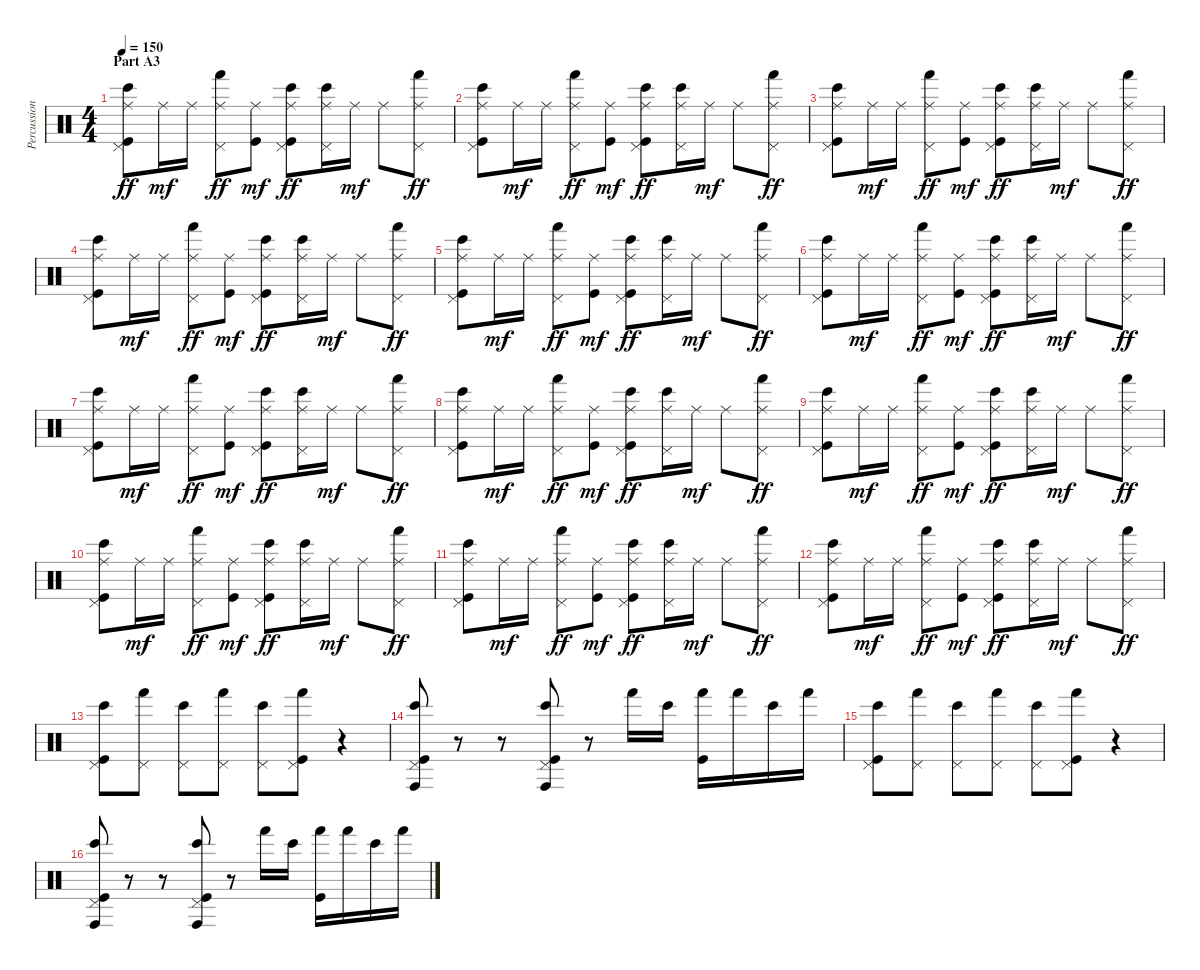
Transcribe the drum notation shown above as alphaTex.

\track ("Percussion" "Percussion") {instrument percussion}
\staff {score}
\articulation defaults
\ts (4 4)
\section ("" "Part A3")
\tempo 150
\clef neutral
\ks c
("Ride (middle)" "Pedal Hi-Hat (hit)" "Bongo High (hit)" "Kick (hit)").8{dy ff} "Ride (middle)".16{dy mf} "Ride (middle)".16 ("Ride (middle)" "Pedal Hi-Hat (hit)" "Hand (hit)").8{dy ff} ("Ride (middle)" "Kick (hit)").8{dy mf} ("Ride (middle)" "Pedal Hi-Hat (hit)" "Bongo High (hit)" "Kick (hit)").8{dy ff} ("Ride (middle)" "Pedal Hi-Hat (hit)" "Bongo High (hit)").16 "Ride (middle)".16{dy mf} "Ride (middle)".8 ("Ride (middle)" "Pedal Hi-Hat (hit)" "Hand (hit)").8{dy ff} |
("Ride (middle)" "Pedal Hi-Hat (hit)" "Bongo High (hit)" "Kick (hit)").8 "Ride (middle)".16{dy mf} "Ride (middle)".16 ("Ride (middle)" "Pedal Hi-Hat (hit)" "Hand (hit)").8{dy ff} ("Ride (middle)" "Kick (hit)").8{dy mf} ("Ride (middle)" "Pedal Hi-Hat (hit)" "Bongo High (hit)" "Kick (hit)").8{dy ff} ("Ride (middle)" "Pedal Hi-Hat (hit)" "Bongo High (hit)").16 "Ride (middle)".16{dy mf} "Ride (middle)".8 ("Ride (middle)" "Pedal Hi-Hat (hit)" "Hand (hit)").8{dy ff} |
("Ride (middle)" "Pedal Hi-Hat (hit)" "Bongo High (hit)" "Kick (hit)").8 "Ride (middle)".16{dy mf} "Ride (middle)".16 ("Ride (middle)" "Pedal Hi-Hat (hit)" "Hand (hit)").8{dy ff} ("Ride (middle)" "Kick (hit)").8{dy mf} ("Ride (middle)" "Pedal Hi-Hat (hit)" "Bongo High (hit)" "Kick (hit)").8{dy ff} ("Ride (middle)" "Pedal Hi-Hat (hit)" "Bongo High (hit)").16 "Ride (middle)".16{dy mf} "Ride (middle)".8 ("Ride (middle)" "Pedal Hi-Hat (hit)" "Hand (hit)").8{dy ff} |
("Ride (middle)" "Pedal Hi-Hat (hit)" "Bongo High (hit)" "Kick (hit)").8 "Ride (middle)".16{dy mf} "Ride (middle)".16 ("Ride (middle)" "Pedal Hi-Hat (hit)" "Hand (hit)").8{dy ff} ("Ride (middle)" "Kick (hit)").8{dy mf} ("Ride (middle)" "Pedal Hi-Hat (hit)" "Bongo High (hit)" "Kick (hit)").8{dy ff} ("Ride (middle)" "Pedal Hi-Hat (hit)" "Bongo High (hit)").16 "Ride (middle)".16{dy mf} "Ride (middle)".8 ("Ride (middle)" "Pedal Hi-Hat (hit)" "Hand (hit)").8{dy ff} |
("Ride (middle)" "Pedal Hi-Hat (hit)" "Bongo High (hit)" "Kick (hit)").8 "Ride (middle)".16{dy mf} "Ride (middle)".16 ("Ride (middle)" "Pedal Hi-Hat (hit)" "Hand (hit)").8{dy ff} ("Ride (middle)" "Kick (hit)").8{dy mf} ("Ride (middle)" "Pedal Hi-Hat (hit)" "Bongo High (hit)" "Kick (hit)").8{dy ff} ("Ride (middle)" "Pedal Hi-Hat (hit)" "Bongo High (hit)").16 "Ride (middle)".16{dy mf} "Ride (middle)".8 ("Ride (middle)" "Pedal Hi-Hat (hit)" "Hand (hit)").8{dy ff} |
("Ride (middle)" "Pedal Hi-Hat (hit)" "Bongo High (hit)" "Kick (hit)").8 "Ride (middle)".16{dy mf} "Ride (middle)".16 ("Ride (middle)" "Pedal Hi-Hat (hit)" "Hand (hit)").8{dy ff} ("Ride (middle)" "Kick (hit)").8{dy mf} ("Ride (middle)" "Pedal Hi-Hat (hit)" "Bongo High (hit)" "Kick (hit)").8{dy ff} ("Ride (middle)" "Pedal Hi-Hat (hit)" "Bongo High (hit)").16 "Ride (middle)".16{dy mf} "Ride (middle)".8 ("Ride (middle)" "Pedal Hi-Hat (hit)" "Hand (hit)").8{dy ff} |
("Ride (middle)" "Pedal Hi-Hat (hit)" "Bongo High (hit)" "Kick (hit)").8 "Ride (middle)".16{dy mf} "Ride (middle)".16 ("Ride (middle)" "Pedal Hi-Hat (hit)" "Hand (hit)").8{dy ff} ("Ride (middle)" "Kick (hit)").8{dy mf} ("Ride (middle)" "Pedal Hi-Hat (hit)" "Bongo High (hit)" "Kick (hit)").8{dy ff} ("Ride (middle)" "Pedal Hi-Hat (hit)" "Bongo High (hit)").16 "Ride (middle)".16{dy mf} "Ride (middle)".8 ("Ride (middle)" "Pedal Hi-Hat (hit)" "Hand (hit)").8{dy ff} |
("Ride (middle)" "Pedal Hi-Hat (hit)" "Bongo High (hit)" "Kick (hit)").8 "Ride (middle)".16{dy mf} "Ride (middle)".16 ("Ride (middle)" "Pedal Hi-Hat (hit)" "Hand (hit)").8{dy ff} ("Ride (middle)" "Kick (hit)").8{dy mf} ("Ride (middle)" "Pedal Hi-Hat (hit)" "Bongo High (hit)" "Kick (hit)").8{dy ff} ("Ride (middle)" "Pedal Hi-Hat (hit)" "Bongo High (hit)").16 "Ride (middle)".16{dy mf} "Ride (middle)".8 ("Ride (middle)" "Pedal Hi-Hat (hit)" "Hand (hit)").8{dy ff} |
("Ride (middle)" "Pedal Hi-Hat (hit)" "Bongo High (hit)" "Kick (hit)").8 "Ride (middle)".16{dy mf} "Ride (middle)".16 ("Ride (middle)" "Pedal Hi-Hat (hit)" "Hand (hit)").8{dy ff} ("Ride (middle)" "Kick (hit)").8{dy mf} ("Ride (middle)" "Pedal Hi-Hat (hit)" "Bongo High (hit)" "Kick (hit)").8{dy ff} ("Ride (middle)" "Pedal Hi-Hat (hit)" "Bongo High (hit)").16 "Ride (middle)".16{dy mf} "Ride (middle)".8 ("Ride (middle)" "Pedal Hi-Hat (hit)" "Hand (hit)").8{dy ff} |
("Ride (middle)" "Pedal Hi-Hat (hit)" "Bongo High (hit)" "Kick (hit)").8 "Ride (middle)".16{dy mf} "Ride (middle)".16 ("Ride (middle)" "Pedal Hi-Hat (hit)" "Hand (hit)").8{dy ff} ("Ride (middle)" "Kick (hit)").8{dy mf} ("Ride (middle)" "Pedal Hi-Hat (hit)" "Bongo High (hit)" "Kick (hit)").8{dy ff} ("Ride (middle)" "Pedal Hi-Hat (hit)" "Bongo High (hit)").16 "Ride (middle)".16{dy mf} "Ride (middle)".8 ("Ride (middle)" "Pedal Hi-Hat (hit)" "Hand (hit)").8{dy ff} |
("Ride (middle)" "Pedal Hi-Hat (hit)" "Bongo High (hit)" "Kick (hit)").8 "Ride (middle)".16{dy mf} "Ride (middle)".16 ("Ride (middle)" "Pedal Hi-Hat (hit)" "Hand (hit)").8{dy ff} ("Ride (middle)" "Kick (hit)").8{dy mf} ("Ride (middle)" "Pedal Hi-Hat (hit)" "Bongo High (hit)" "Kick (hit)").8{dy ff} ("Ride (middle)" "Pedal Hi-Hat (hit)" "Bongo High (hit)").16 "Ride (middle)".16{dy mf} "Ride (middle)".8 ("Ride (middle)" "Pedal Hi-Hat (hit)" "Hand (hit)").8{dy ff} |
("Ride (middle)" "Pedal Hi-Hat (hit)" "Bongo High (hit)" "Kick (hit)").8 "Ride (middle)".16{dy mf} "Ride (middle)".16 ("Ride (middle)" "Pedal Hi-Hat (hit)" "Hand (hit)").8{dy ff} ("Ride (middle)" "Kick (hit)").8{dy mf} ("Ride (middle)" "Pedal Hi-Hat (hit)" "Bongo High (hit)" "Kick (hit)").8{dy ff} ("Ride (middle)" "Pedal Hi-Hat (hit)" "Bongo High (hit)").16 "Ride (middle)".16{dy mf} "Ride (middle)".8 ("Ride (middle)" "Pedal Hi-Hat (hit)" "Hand (hit)").8{dy ff} |
("Pedal Hi-Hat (hit)" "Bongo High (hit)" "Kick (hit)").8 ("Pedal Hi-Hat (hit)" "Hand (hit)").8 ("Pedal Hi-Hat (hit)" "Bongo High (hit)").8 ("Pedal Hi-Hat (hit)" "Hand (hit)").8 ("Pedal Hi-Hat (hit)" "Bongo High (hit)").8 ("Pedal Hi-Hat (hit)" "Hand (hit)" "Kick (hit)").8 r.4 |
("Pedal Hi-Hat (hit)" "Conga high (hit)" "Bongo High (hit)" "Kick (hit)").8 r.8 r.8 ("Pedal Hi-Hat (hit)" "Conga high (hit)" "Bongo High (hit)" "Kick (hit)").8 r.8 "Hand (hit)".16 "Bongo High (hit)".16 ("Hand (hit)" "Kick (hit)").16 "Hand (hit)".16 "Bongo High (hit)".16 "Hand (hit)".16 |
("Pedal Hi-Hat (hit)" "Bongo High (hit)" "Kick (hit)").8 ("Pedal Hi-Hat (hit)" "Hand (hit)").8 ("Pedal Hi-Hat (hit)" "Bongo High (hit)").8 ("Pedal Hi-Hat (hit)" "Hand (hit)").8 ("Pedal Hi-Hat (hit)" "Bongo High (hit)").8 ("Pedal Hi-Hat (hit)" "Hand (hit)" "Kick (hit)").8 r.4 |
("Pedal Hi-Hat (hit)" "Conga high (hit)" "Bongo High (hit)" "Kick (hit)").8 r.8 r.8 ("Pedal Hi-Hat (hit)" "Conga high (hit)" "Bongo High (hit)" "Kick (hit)").8 r.8 "Hand (hit)".16 "Bongo High (hit)".16 ("Hand (hit)" "Kick (hit)").16 "Hand (hit)".16 "Bongo High (hit)".16 "Hand (hit)".16
